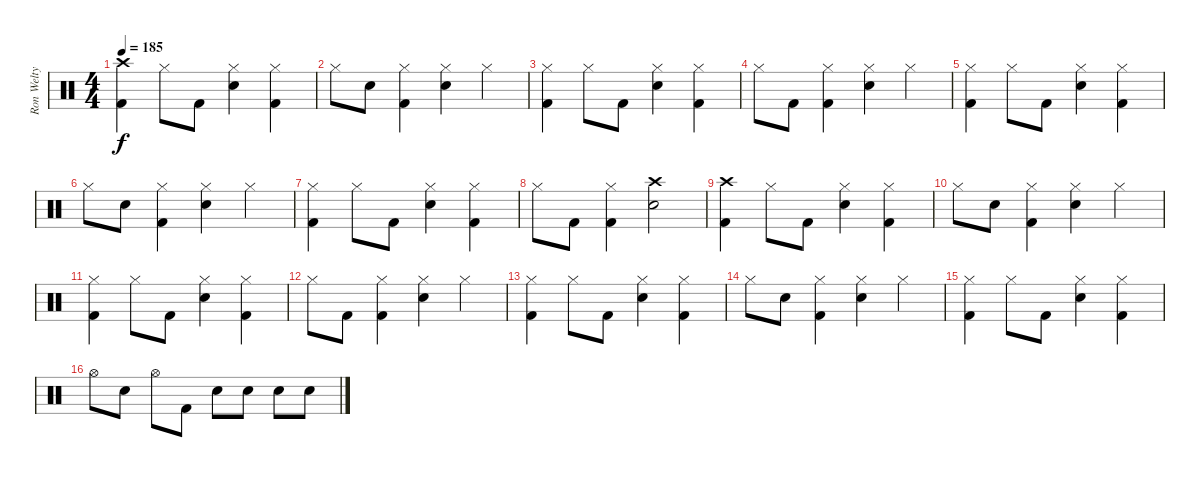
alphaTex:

\track ("Ron Welty" "Ron Welty") {instrument percussion}
\staff {score}
\articulation defaults
\ts (4 4)
\tempo 185
\clef neutral
\ks c
("Crash high (hit)" "Kick (hit) 2").4{dy f} "Hi-Hat (closed)".8 "Kick (hit) 2".8 ("Hi-Hat (closed)" "Electric Snare (hit)").4 ("Hi-Hat (closed)" "Kick (hit) 2").4 |
"Hi-Hat (closed)".8 "Electric Snare (hit)".8 ("Hi-Hat (closed)" "Kick (hit) 2").4 ("Hi-Hat (closed)" "Electric Snare (hit)").4 "Hi-Hat (closed)".4 |
("Hi-Hat (closed)" "Kick (hit) 2").4 "Hi-Hat (closed)".8 "Kick (hit) 2".8 ("Hi-Hat (closed)" "Electric Snare (hit)").4 ("Hi-Hat (closed)" "Kick (hit) 2").4 |
"Hi-Hat (closed)".8 "Kick (hit) 2".8 ("Hi-Hat (closed)" "Kick (hit) 2").4 ("Hi-Hat (closed)" "Electric Snare (hit)").4 "Hi-Hat (closed)".4 |
("Hi-Hat (closed)" "Kick (hit) 2").4 "Hi-Hat (closed)".8 "Kick (hit) 2".8 ("Hi-Hat (closed)" "Electric Snare (hit)").4 ("Hi-Hat (closed)" "Kick (hit) 2").4 |
"Hi-Hat (closed)".8 "Electric Snare (hit)".8 ("Hi-Hat (closed)" "Kick (hit) 2").4 ("Hi-Hat (closed)" "Electric Snare (hit)").4 "Hi-Hat (closed)".4 |
("Hi-Hat (closed)" "Kick (hit) 2").4 "Hi-Hat (closed)".8 "Kick (hit) 2".8 ("Hi-Hat (closed)" "Electric Snare (hit)").4 ("Hi-Hat (closed)" "Kick (hit) 2").4 |
"Hi-Hat (closed)".8 "Kick (hit) 2".8 ("Hi-Hat (closed)" "Kick (hit) 2").4 ("Crash high (hit)" "Electric Snare (hit)").2 |
("Crash high (hit)" "Kick (hit) 2").4 "Hi-Hat (closed)".8 "Kick (hit) 2".8 ("Hi-Hat (closed)" "Electric Snare (hit)").4 ("Hi-Hat (closed)" "Kick (hit) 2").4 |
"Hi-Hat (closed)".8 "Electric Snare (hit)".8 ("Hi-Hat (closed)" "Kick (hit) 2").4 ("Hi-Hat (closed)" "Electric Snare (hit)").4 "Hi-Hat (closed)".4 |
("Hi-Hat (closed)" "Kick (hit) 2").4 "Hi-Hat (closed)".8 "Kick (hit) 2".8 ("Hi-Hat (closed)" "Electric Snare (hit)").4 ("Hi-Hat (closed)" "Kick (hit) 2").4 |
"Hi-Hat (closed)".8 "Kick (hit) 2".8 ("Hi-Hat (closed)" "Kick (hit) 2").4 ("Hi-Hat (closed)" "Electric Snare (hit)").4 "Hi-Hat (closed)".4 |
("Hi-Hat (closed)" "Kick (hit) 2").4 "Hi-Hat (closed)".8 "Kick (hit) 2".8 ("Hi-Hat (closed)" "Electric Snare (hit)").4 ("Hi-Hat (closed)" "Kick (hit) 2").4 |
"Hi-Hat (closed)".8 "Electric Snare (hit)".8 ("Hi-Hat (closed)" "Kick (hit) 2").4 ("Hi-Hat (closed)" "Electric Snare (hit)").4 "Hi-Hat (closed)".4 |
("Hi-Hat (closed)" "Kick (hit) 2").4 "Hi-Hat (closed)".8 "Kick (hit) 2".8 ("Hi-Hat (closed)" "Electric Snare (hit)").4 ("Hi-Hat (closed)" "Kick (hit) 2").4 |
"Hi-Hat (open)".8 "Electric Snare (hit)".8 "Hi-Hat (open)".8 "Kick (hit) 2".8 "Electric Snare (hit)".8 "Electric Snare (hit)".8 "Electric Snare (hit)".8 "Electric Snare (hit)".8
